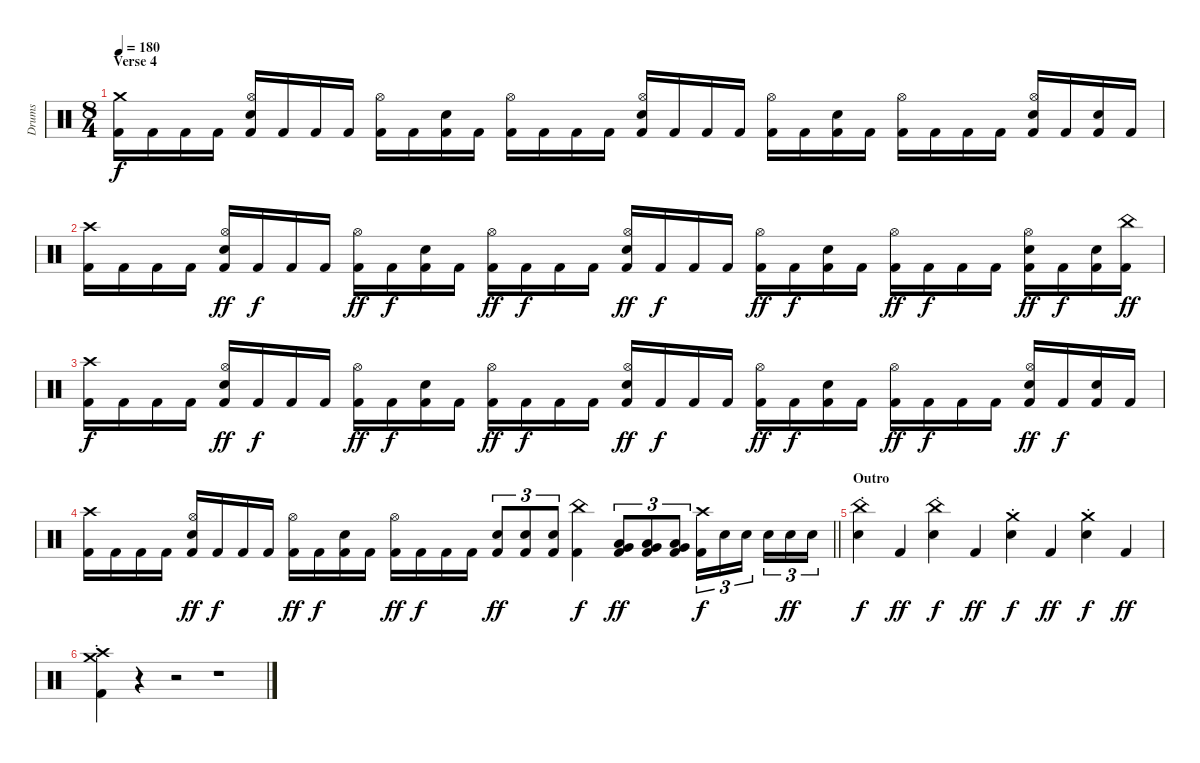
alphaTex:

\track ("Drums" "Drums") {instrument percussion}
\staff {score}
\articulation defaults
\ts (8 4)
\section ("" "Verse 4")
\tempo 180
\clef neutral
\ks c
("Crash medium (hit)" "Kick (hit) 2").16{dy f} "Kick (hit) 2".16 "Kick (hit) 2".16 "Kick (hit) 2".16 ("Hi-Hat (open)" "Snare (hit) 2" "Kick (hit) 2").16 "Kick (hit) 2".16 "Kick (hit) 2".16 "Kick (hit) 2".16 ("Hi-Hat (open)" "Kick (hit) 2").16 "Kick (hit) 2".16 ("Snare (hit) 2" "Kick (hit) 2").16 "Kick (hit) 2".16 ("Hi-Hat (open)" "Kick (hit) 2").16 "Kick (hit) 2".16 "Kick (hit) 2".16 "Kick (hit) 2".16 ("Hi-Hat (open)" "Snare (hit) 2" "Kick (hit) 2").16 "Kick (hit) 2".16 "Kick (hit) 2".16 "Kick (hit) 2".16 ("Hi-Hat (open)" "Kick (hit) 2").16 "Kick (hit) 2".16 ("Snare (hit) 2" "Kick (hit) 2").16 "Kick (hit) 2".16 ("Hi-Hat (open)" "Kick (hit) 2").16 "Kick (hit) 2".16 "Kick (hit) 2".16 "Kick (hit) 2".16 ("Hi-Hat (open)" "Snare (hit) 2" "Kick (hit) 2").16 "Kick (hit) 2".16 ("Snare (hit) 2" "Kick (hit) 2").16 "Kick (hit) 2".16 |
("Crash high (hit)" "Kick (hit) 2").16 "Kick (hit) 2".16 "Kick (hit) 2".16 "Kick (hit) 2".16 ("Hi-Hat (open)" "Snare (hit) 2" "Kick (hit) 2").16{dy ff} "Kick (hit) 2".16{dy f} "Kick (hit) 2".16 "Kick (hit) 2".16 ("Hi-Hat (open)" "Kick (hit) 2").16{dy ff} "Kick (hit) 2".16{dy f} ("Snare (hit) 2" "Kick (hit) 2").16 "Kick (hit) 2".16 ("Hi-Hat (open)" "Kick (hit) 2").16{dy ff} "Kick (hit) 2".16{dy f} "Kick (hit) 2".16 "Kick (hit) 2".16 ("Hi-Hat (open)" "Snare (hit) 2" "Kick (hit) 2").16{dy ff} "Kick (hit) 2".16{dy f} "Kick (hit) 2".16 "Kick (hit) 2".16 ("Hi-Hat (open)" "Kick (hit) 2").16{dy ff} "Kick (hit) 2".16{dy f} ("Snare (hit) 2" "Kick (hit) 2").16 "Kick (hit) 2".16 ("Hi-Hat (open)" "Kick (hit) 2").16{dy ff} "Kick (hit) 2".16{dy f} "Kick (hit) 2".16 "Kick (hit) 2".16 ("Hi-Hat (open)" "Snare (hit) 2" "Kick (hit) 2").16{dy ff} "Kick (hit) 2".16{dy f} ("Snare (hit) 2" "Kick (hit) 2").16 ("China (hit)" "Kick (hit) 2").16{dy ff} |
("Crash high (hit)" "Kick (hit) 2").16{dy f} "Kick (hit) 2".16 "Kick (hit) 2".16 "Kick (hit) 2".16 ("Hi-Hat (open)" "Snare (hit) 2" "Kick (hit) 2").16{dy ff} "Kick (hit) 2".16{dy f} "Kick (hit) 2".16 "Kick (hit) 2".16 ("Hi-Hat (open)" "Kick (hit) 2").16{dy ff} "Kick (hit) 2".16{dy f} ("Snare (hit) 2" "Kick (hit) 2").16 "Kick (hit) 2".16 ("Hi-Hat (open)" "Kick (hit) 2").16{dy ff} "Kick (hit) 2".16{dy f} "Kick (hit) 2".16 "Kick (hit) 2".16 ("Hi-Hat (open)" "Snare (hit) 2" "Kick (hit) 2").16{dy ff} "Kick (hit) 2".16{dy f} "Kick (hit) 2".16 "Kick (hit) 2".16 ("Hi-Hat (open)" "Kick (hit) 2").16{dy ff} "Kick (hit) 2".16{dy f} ("Snare (hit) 2" "Kick (hit) 2").16 "Kick (hit) 2".16 ("Hi-Hat (open)" "Kick (hit) 2").16{dy ff} "Kick (hit) 2".16{dy f} "Kick (hit) 2".16 "Kick (hit) 2".16 ("Hi-Hat (open)" "Snare (hit) 2" "Kick (hit) 2").16{dy ff} "Kick (hit) 2".16{dy f} ("Snare (hit) 2" "Kick (hit) 2").16 "Kick (hit) 2".16 |
\barLineRight lightlight
("Crash high (hit)" "Kick (hit) 2").16 "Kick (hit) 2".16 "Kick (hit) 2".16 "Kick (hit) 2".16 ("Hi-Hat (open)" "Snare (hit) 2" "Kick (hit) 2").16{dy ff} "Kick (hit) 2".16{dy f} "Kick (hit) 2".16 "Kick (hit) 2".16 ("Hi-Hat (open)" "Kick (hit) 2").16{dy ff} "Kick (hit) 2".16{dy f} ("Snare (hit) 2" "Kick (hit) 2").16 "Kick (hit) 2".16 ("Hi-Hat (open)" "Kick (hit) 2").16{dy ff} "Kick (hit) 2".16{dy f} "Kick (hit) 2".16 "Kick (hit) 2".16 ("Snare (hit) 2" "Kick (hit) 2").8{tu (3 2) dy ff} ("Snare (hit) 2" "Kick (hit) 2").8{tu (3 2)} ("Snare (hit) 2" "Kick (hit) 2").8{tu (3 2)} ("China (hit)" "Kick (hit) 2").4{dy f} ("Low Floor Tom (hit)" "Very Low Tom (hit)" "Kick (hit) 2").8{tu (3 2) dy ff} ("Low Floor Tom (hit)" "Very Low Tom (hit)" "Kick (hit) 2").8{tu (3 2)} ("Low Floor Tom (hit)" "Very Low Tom (hit)" "Kick (hit) 2").8{tu (3 2)} ("Crash high (hit)" "Kick (hit) 2").16{tu (3 2) dy f} "Snare (hit) 2".16{tu (3 2)} "Snare (hit) 2".16{tu (3 2) beam splitsecondary} "Snare (hit) 2".16{tu (3 2)} "Snare (hit) 2".16{tu (3 2) dy ff} "Snare (hit) 2".16{tu (3 2)} |
\section ("" "Outro")
("China (hit)"{st} "Electric Snare (hit)").4{dy f} "Kick (hit) 2".4{dy ff} ("China (hit)"{st} "Electric Snare (hit)").4{dy f} "Kick (hit) 2".4{dy ff} ("Crash medium (hit)"{st} "Electric Snare (hit)").4{dy f} "Kick (hit) 2".4{dy ff} ("Crash medium (hit)"{st} "Electric Snare (hit)").4{dy f} "Kick (hit) 2".4{dy ff} |
("Crash medium (hit)"{st} "Crash high (hit)" "Kick (hit) 2").4 r.4 r.2 r.1
